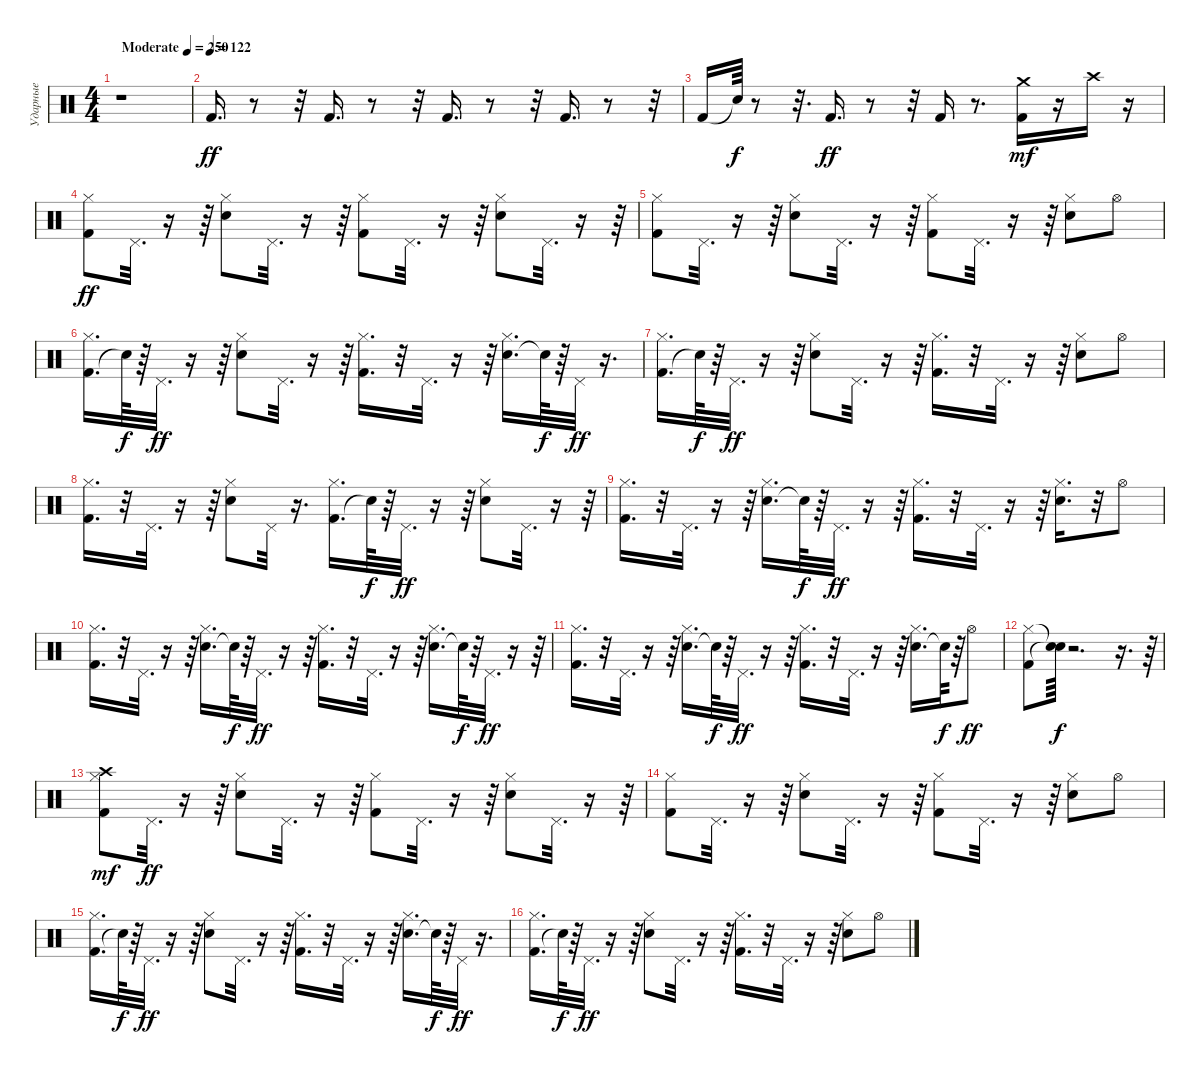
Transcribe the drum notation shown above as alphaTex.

\track ("Ударные" "Ударные") {instrument percussion}
\staff {score}
\articulation defaults
\ts (4 4)
\tempo (250 "Moderate")
\clef neutral
\ks c
r.1{dy ff} |
\tempo (122)
"Kick (hit) 2".16{d} r.8 r.32 "Kick (hit) 2".16{d} r.8 r.32 "Kick (hit) 2".16{d} r.8 r.32 "Kick (hit) 2".16{d} r.8 r.32 |
"Kick (hit) 2".16 "Snare (hit)"{t}.64{dy f} r.8 r.32{d} "Kick (hit) 2".16{d dy ff} r.8 r.32 "Kick (hit) 2".16 r.8{d} ("Kick (hit) 2" "Crash medium (hit)").16{dy mf} r.16 "Crash high (hit)".16 r.16 |
("Kick (hit) 2" "Hi-Hat (closed)").8{dy ff} "Pedal Hi-Hat (hit)".32{d} r.16 r.64 ("Snare (hit) 2" "Hi-Hat (closed)").8 "Pedal Hi-Hat (hit)".32{d} r.16 r.64 ("Kick (hit) 2" "Hi-Hat (closed)").8 "Pedal Hi-Hat (hit)".32{d} r.16 r.64 ("Snare (hit) 2" "Hi-Hat (closed)").8 "Pedal Hi-Hat (hit)".32{d} r.16 r.64 |
("Kick (hit) 2" "Hi-Hat (closed)").8 "Pedal Hi-Hat (hit)".32{d} r.16 r.64 ("Snare (hit) 2" "Hi-Hat (closed)").8 "Pedal Hi-Hat (hit)".32{d} r.16 r.64 ("Kick (hit) 2" "Hi-Hat (closed)").8 "Pedal Hi-Hat (hit)".32{d} r.16 r.64 ("Snare (hit) 2" "Hi-Hat (closed)").8 "Hi-Hat (open)".8 |
("Kick (hit) 2" "Hi-Hat (closed)").16{d} "Snare (hit)"{t}.64{dy f} r.64 "Pedal Hi-Hat (hit)".32{d dy ff} r.16 r.64 ("Snare (hit) 2" "Hi-Hat (closed)").8 "Pedal Hi-Hat (hit)".32{d} r.16 r.64 ("Kick (hit) 2" "Hi-Hat (closed)").16{d} r.32 "Pedal Hi-Hat (hit)".32{d} r.16 r.64 ("Snare (hit) 2" "Hi-Hat (closed)").16{d} "Snare (hit)"{t}.64{dy f} r.64 "Pedal Hi-Hat (hit)".32{dy ff} r.16{d} |
("Kick (hit) 2" "Hi-Hat (closed)").16{d} "Snare (hit)"{t}.64{dy f} r.64 "Pedal Hi-Hat (hit)".32{d dy ff} r.16 r.64 ("Snare (hit) 2" "Hi-Hat (closed)").8 "Pedal Hi-Hat (hit)".32{d} r.16 r.64 ("Kick (hit) 2" "Hi-Hat (closed)").16{d} r.32 "Pedal Hi-Hat (hit)".32{d} r.16 r.64 ("Snare (hit) 2" "Hi-Hat (closed)").8 "Hi-Hat (open)".8 |
("Kick (hit) 2" "Hi-Hat (closed)").16{d} r.32 "Pedal Hi-Hat (hit)".32{d} r.16 r.64 ("Snare (hit) 2" "Hi-Hat (closed)").8 "Pedal Hi-Hat (hit)".32 r.16{d} ("Kick (hit) 2" "Hi-Hat (closed)").16{d} "Snare (hit)"{t}.64{dy f} r.64 "Pedal Hi-Hat (hit)".32{d dy ff} r.16 r.64 ("Snare (hit) 2" "Hi-Hat (closed)").8 "Pedal Hi-Hat (hit)".32{d} r.16 r.64 |
("Kick (hit) 2" "Hi-Hat (closed)").16{d} r.32 "Pedal Hi-Hat (hit)".32{d} r.16 r.64 ("Snare (hit) 2" "Hi-Hat (closed)").16{d} "Snare (hit)"{t}.64{dy f} r.64 "Pedal Hi-Hat (hit)".32{d dy ff} r.16 r.64 ("Kick (hit) 2" "Hi-Hat (closed)").16{d} r.32 "Pedal Hi-Hat (hit)".32{d} r.16 r.64 ("Snare (hit) 2" "Hi-Hat (closed)").16{d} r.32 "Hi-Hat (open)".8 |
("Kick (hit) 2" "Hi-Hat (closed)").16{d} r.32 "Pedal Hi-Hat (hit)".32{d} r.16 r.64 ("Snare (hit) 2" "Hi-Hat (closed)").16{d} "Snare (hit)"{t}.64{dy f} r.64 "Pedal Hi-Hat (hit)".32{d dy ff} r.16 r.64 ("Kick (hit) 2" "Hi-Hat (closed)").16{d} r.32 "Pedal Hi-Hat (hit)".32{d} r.16 r.64 ("Snare (hit) 2" "Hi-Hat (closed)").16{d} "Snare (hit)"{t}.64{dy f} r.64 "Pedal Hi-Hat (hit)".32{d dy ff} r.16 r.64 |
("Kick (hit) 2" "Hi-Hat (closed)").16{d} r.32 "Pedal Hi-Hat (hit)".32{d} r.16 r.64 ("Snare (hit) 2" "Hi-Hat (closed)").16{d} "Snare (hit)"{t}.64{dy f} r.64 "Pedal Hi-Hat (hit)".32{d dy ff} r.16 r.64 ("Kick (hit) 2" "Hi-Hat (closed)").16{d} r.32 "Pedal Hi-Hat (hit)".32{d} r.16 r.64 ("Snare (hit) 2" "Hi-Hat (closed)").16{d} "Snare (hit)"{t}.64{dy f} r.64 "Hi-Hat (open)".8{dy ff} |
("Kick (hit) 2" "Hi-Hat (closed)").8 ("Snare (hit)"{t} "Snare (hit)"{t}).64{dy f} r.2{d} r.16{d} r.64 |
("Kick (hit) 2" "Hi-Hat (closed)" "Crash high (hit)").8{dy mf} "Pedal Hi-Hat (hit)".32{d dy ff} r.16 r.64 ("Snare (hit) 2" "Hi-Hat (closed)").8 "Pedal Hi-Hat (hit)".32{d} r.16 r.64 ("Kick (hit) 2" "Hi-Hat (closed)").8 "Pedal Hi-Hat (hit)".32{d} r.16 r.64 ("Snare (hit) 2" "Hi-Hat (closed)").8 "Pedal Hi-Hat (hit)".32{d} r.16 r.64 |
("Kick (hit) 2" "Hi-Hat (closed)").8 "Pedal Hi-Hat (hit)".32{d} r.16 r.64 ("Snare (hit) 2" "Hi-Hat (closed)").8 "Pedal Hi-Hat (hit)".32{d} r.16 r.64 ("Kick (hit) 2" "Hi-Hat (closed)").8 "Pedal Hi-Hat (hit)".32{d} r.16 r.64 ("Snare (hit) 2" "Hi-Hat (closed)").8 "Hi-Hat (open)".8 |
("Kick (hit) 2" "Hi-Hat (closed)").16{d} "Snare (hit)"{t}.64{dy f} r.64 "Pedal Hi-Hat (hit)".32{d dy ff} r.16 r.64 ("Snare (hit) 2" "Hi-Hat (closed)").8 "Pedal Hi-Hat (hit)".32{d} r.16 r.64 ("Kick (hit) 2" "Hi-Hat (closed)").16{d} r.32 "Pedal Hi-Hat (hit)".32{d} r.16 r.64 ("Snare (hit) 2" "Hi-Hat (closed)").16{d} "Snare (hit)"{t}.64{dy f} r.64 "Pedal Hi-Hat (hit)".32{dy ff} r.16{d} |
("Kick (hit) 2" "Hi-Hat (closed)").16{d} "Snare (hit)"{t}.64{dy f} r.64 "Pedal Hi-Hat (hit)".32{d dy ff} r.16 r.64 ("Snare (hit) 2" "Hi-Hat (closed)").8 "Pedal Hi-Hat (hit)".32{d} r.16 r.64 ("Kick (hit) 2" "Hi-Hat (closed)").16{d} r.32 "Pedal Hi-Hat (hit)".32{d} r.16 r.64 ("Snare (hit) 2" "Hi-Hat (closed)").8 "Hi-Hat (open)".8
